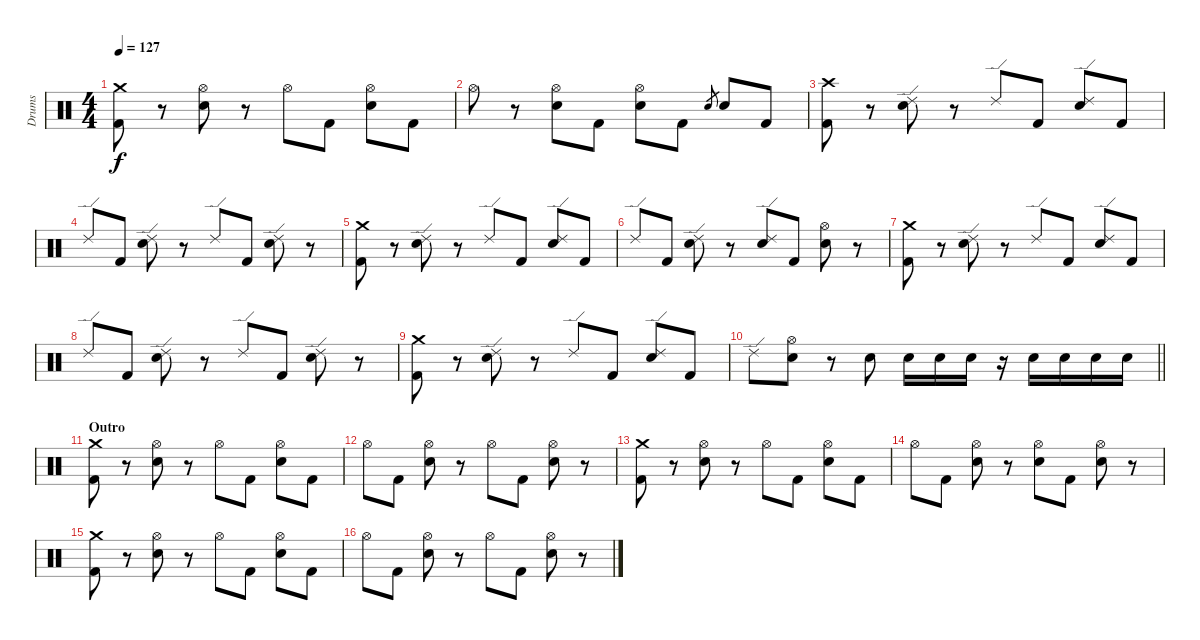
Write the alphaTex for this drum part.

\track ("Drums" "Drums") {instrument percussion}
\staff {score}
\articulation defaults
\ts (4 4)
\tempo 127
\clef neutral
\ks c
("Crash medium (hit)" "Kick (hit) 2").8{dy f} r.8 ("Hi-Hat (open)" "Electric Snare (hit)").8 r.8 "Hi-Hat (open)".8 "Kick (hit) 2".8 ("Hi-Hat (open)" "Electric Snare (hit)").8 "Kick (hit) 2".8 |
"Hi-Hat (open)".8 r.8 ("Hi-Hat (open)" "Electric Snare (hit)").8 "Kick (hit) 2".8 ("Hi-Hat (open)" "Electric Snare (hit)").8 "Kick (hit) 2".8 "Electric Snare (hit)".8{gr} "Electric Snare (hit)".8 "Kick (hit) 2".8 |
("Crash high (hit)" "Kick (hit) 2").8 r.8 ("Ride (edge) 2" "Electric Snare (hit)").8 r.8 "Ride (edge) 2".8 "Kick (hit) 2".8 ("Ride (edge) 2" "Electric Snare (hit)").8 "Kick (hit) 2".8 |
"Ride (edge) 2".8 "Kick (hit) 2".8 ("Ride (edge) 2" "Electric Snare (hit)").8 r.8 "Ride (edge) 2".8 "Kick (hit) 2".8 ("Ride (edge) 2" "Electric Snare (hit)").8 r.8 |
("Crash medium (hit)" "Kick (hit) 2").8 r.8 ("Ride (edge) 2" "Electric Snare (hit)").8 r.8 "Ride (edge) 2".8 "Kick (hit) 2".8 ("Ride (edge) 2" "Electric Snare (hit)").8 "Kick (hit) 2".8 |
"Ride (edge) 2".8 "Kick (hit) 2".8 ("Ride (edge) 2" "Electric Snare (hit)").8 r.8 ("Ride (edge) 2" "Electric Snare (hit)").8 "Kick (hit) 2".8 ("Hi-Hat (open)" "Electric Snare (hit)").8 r.8 |
("Crash medium (hit)" "Kick (hit) 2").8 r.8 ("Ride (edge) 2" "Electric Snare (hit)").8 r.8 "Ride (edge) 2".8 "Kick (hit) 2".8 ("Ride (edge) 2" "Electric Snare (hit)").8 "Kick (hit) 2".8 |
"Ride (edge) 2".8 "Kick (hit) 2".8 ("Ride (edge) 2" "Electric Snare (hit)").8 r.8 "Ride (edge) 2".8 "Kick (hit) 2".8 ("Ride (edge) 2" "Electric Snare (hit)").8 r.8 |
("Crash medium (hit)" "Kick (hit) 2").8 r.8 ("Ride (edge) 2" "Electric Snare (hit)").8 r.8 "Ride (edge) 2".8 "Kick (hit) 2".8 ("Ride (edge) 2" "Electric Snare (hit)").8 "Kick (hit) 2".8 |
\barLineRight lightlight "Ride (edge) 2".8
("Hi-Hat (open)" "Electric Snare (hit)").8 r.8 "Electric Snare (hit)".8 "Electric Snare (hit)".16 "Electric Snare (hit)".16 "Electric Snare (hit)".16 r.16 "Electric Snare (hit)".16 "Electric Snare (hit)".16 "Electric Snare (hit)".16 "Electric Snare (hit)".16 |
\section ("" "Outro")
("Crash medium (hit)" "Kick (hit) 2").8 r.8 ("Hi-Hat (open)" "Electric Snare (hit)").8 r.8 "Hi-Hat (open)".8 "Kick (hit) 2".8 ("Hi-Hat (open)" "Electric Snare (hit)").8 "Kick (hit) 2".8 |
"Hi-Hat (open)".8 "Kick (hit) 2".8 ("Hi-Hat (open)" "Electric Snare (hit)").8 r.8 "Hi-Hat (open)".8 "Kick (hit) 2".8 ("Hi-Hat (open)" "Electric Snare (hit)").8 r.8 |
("Crash medium (hit)" "Kick (hit) 2").8 r.8 ("Hi-Hat (open)" "Electric Snare (hit)").8 r.8 "Hi-Hat (open)".8 "Kick (hit) 2".8 ("Hi-Hat (open)" "Electric Snare (hit)").8 "Kick (hit) 2".8 |
"Hi-Hat (open)".8 "Kick (hit) 2".8 ("Hi-Hat (open)" "Electric Snare (hit)").8 r.8 ("Hi-Hat (open)" "Electric Snare (hit)").8 "Kick (hit) 2".8 ("Hi-Hat (open)" "Electric Snare (hit)").8 r.8 |
("Crash medium (hit)" "Kick (hit) 2").8 r.8 ("Hi-Hat (open)" "Electric Snare (hit)").8 r.8 "Hi-Hat (open)".8 "Kick (hit) 2".8 ("Hi-Hat (open)" "Electric Snare (hit)").8 "Kick (hit) 2".8 |
"Hi-Hat (open)".8 "Kick (hit) 2".8 ("Hi-Hat (open)" "Electric Snare (hit)").8 r.8 "Hi-Hat (open)".8 "Kick (hit) 2".8 ("Hi-Hat (open)" "Electric Snare (hit)").8 r.8
